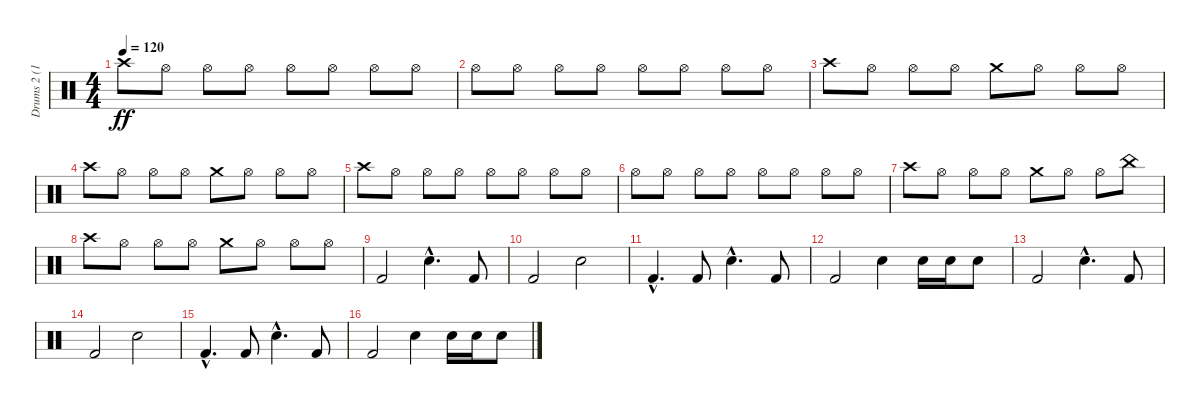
\track ("Drums 2 (16)" "Drums 2 (1") {instrument percussion}
\staff {score}
\articulation defaults
\ts (4 4)
\tempo 120
\clef neutral
\ks c "Crash high (hit)".8{dy ff} "Hi-Hat (open)".8 "Hi-Hat (open)".8 "Hi-Hat (open)".8 "Hi-Hat (open)".8 "Hi-Hat (open)".8 "Hi-Hat (open)".8 "Hi-Hat (open)".8
|
"Hi-Hat (open)".8 "Hi-Hat (open)".8 "Hi-Hat (open)".8 "Hi-Hat (open)".8 "Hi-Hat (open)".8 "Hi-Hat (open)".8 "Hi-Hat (open)".8 "Hi-Hat (open)".8 |
"Crash high (hit)".8 "Hi-Hat (open)".8 "Hi-Hat (open)".8 "Hi-Hat (open)".8 "Crash medium (hit)".8 "Hi-Hat (open)".8 "Hi-Hat (open)".8 "Hi-Hat (open)".8 |
"Crash high (hit)".8 "Hi-Hat (open)".8 "Hi-Hat (open)".8 "Hi-Hat (open)".8 "Crash medium (hit)".8 "Hi-Hat (open)".8 "Hi-Hat (open)".8 "Hi-Hat (open)".8 |
"Crash high (hit)".8 "Hi-Hat (open)".8 "Hi-Hat (open)".8 "Hi-Hat (open)".8 "Hi-Hat (open)".8 "Hi-Hat (open)".8 "Hi-Hat (open)".8 "Hi-Hat (open)".8 |
"Hi-Hat (open)".8 "Hi-Hat (open)".8 "Hi-Hat (open)".8 "Hi-Hat (open)".8 "Hi-Hat (open)".8 "Hi-Hat (open)".8 "Hi-Hat (open)".8 "Hi-Hat (open)".8 |
"Crash high (hit)".8 "Hi-Hat (open)".8 "Hi-Hat (open)".8 "Hi-Hat (open)".8 "Crash medium (hit)".8 "Hi-Hat (open)".8 "Hi-Hat (open)".8 "China (hit)".8 |
"Crash high (hit)".8 "Hi-Hat (open)".8 "Hi-Hat (open)".8 "Hi-Hat (open)".8 "Crash medium (hit)".8 "Hi-Hat (open)".8 "Hi-Hat (open)".8 "Hi-Hat (open)".8 |
"Kick (hit) 2".2 "Snare (hit) 2"{hac}.4{d} "Kick (hit) 2".8 |
"Kick (hit) 2".2 "Snare (hit) 2".2 |
"Kick (hit) 2"{hac}.4{d} "Kick (hit) 2".8 "Snare (hit) 2"{hac}.4{d} "Kick (hit) 2".8 |
"Kick (hit) 2".2 "Snare (hit) 2".4 "Snare (hit) 2".16 "Snare (hit) 2".16 "Snare (hit) 2".8 |
"Kick (hit) 2".2 "Snare (hit) 2"{hac}.4{d} "Kick (hit) 2".8 |
"Kick (hit) 2".2 "Snare (hit) 2".2 |
"Kick (hit) 2"{hac}.4{d} "Kick (hit) 2".8 "Snare (hit) 2"{hac}.4{d} "Kick (hit) 2".8 |
"Kick (hit) 2".2 "Snare (hit) 2".4 "Snare (hit) 2".16 "Snare (hit) 2".16 "Snare (hit) 2".8
